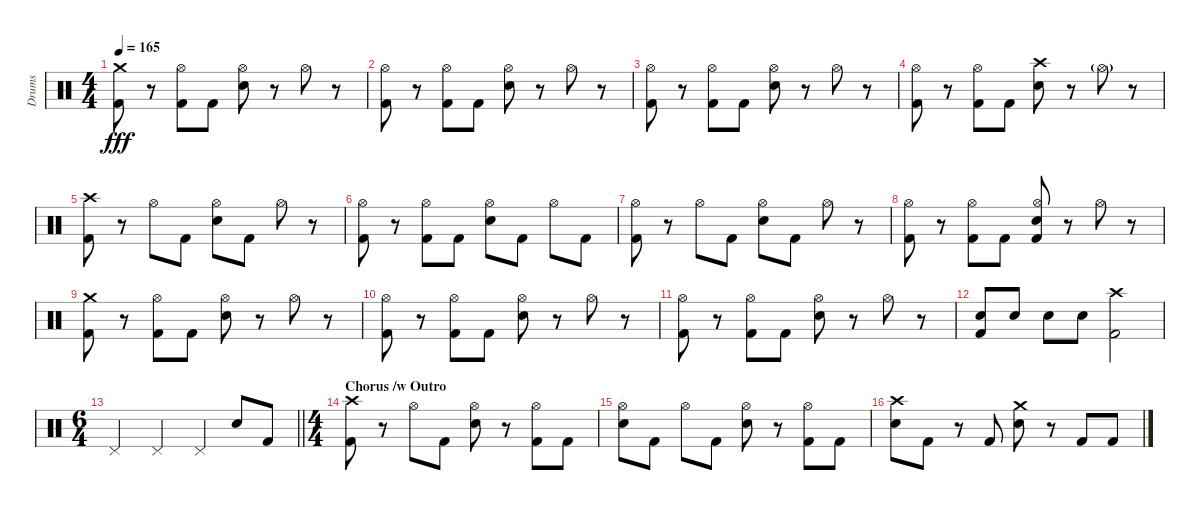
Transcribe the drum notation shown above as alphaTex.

\track ("Drums" "Drums") {instrument percussion}
\staff {score}
\articulation defaults
\ts (4 4)
\tempo 165
\clef neutral
\ks c
("Crash medium (hit)" "Kick (hit) 2").8{dy fff} r.8 ("Hi-Hat (open)" "Kick (hit) 2").8 "Kick (hit) 2".8 ("Hi-Hat (open)" "Electric Snare (hit)").8 r.8 "Hi-Hat (open)".8 r.8 |
("Hi-Hat (open)" "Kick (hit) 2").8 r.8 ("Hi-Hat (open)" "Kick (hit) 2").8 "Kick (hit) 2".8 ("Hi-Hat (open)" "Electric Snare (hit)").8 r.8 "Hi-Hat (open)".8 r.8 |
("Hi-Hat (open)" "Kick (hit) 2").8 r.8 ("Hi-Hat (open)" "Kick (hit) 2").8 "Kick (hit) 2".8 ("Hi-Hat (open)" "Electric Snare (hit)").8 r.8 "Hi-Hat (open)".8 r.8 |
("Hi-Hat (open)" "Kick (hit) 2").8 r.8 ("Hi-Hat (open)" "Kick (hit) 2").8 "Kick (hit) 2".8 ("Crash high (hit)" "Electric Snare (hit)").8 r.8 "Hi-Hat (open)"{g}.8 r.8 |
("Crash high (hit)" "Kick (hit) 2").8 r.8 "Hi-Hat (open)".8 "Kick (hit) 2".8 ("Hi-Hat (open)" "Electric Snare (hit)").8 "Kick (hit) 2".8 "Hi-Hat (open)".8 r.8 |
("Hi-Hat (open)" "Kick (hit) 2").8 r.8 ("Hi-Hat (open)" "Kick (hit) 2").8 "Kick (hit) 2".8 ("Hi-Hat (open)" "Electric Snare (hit)").8 "Kick (hit) 2".8 "Hi-Hat (open)".8 "Kick (hit) 2".8 |
("Hi-Hat (open)" "Kick (hit) 2").8 r.8 "Hi-Hat (open)".8 "Kick (hit) 2".8 ("Hi-Hat (open)" "Electric Snare (hit)").8 "Kick (hit) 2".8 "Hi-Hat (open)".8 r.8 |
("Hi-Hat (open)" "Kick (hit) 2").8 r.8 ("Hi-Hat (open)" "Kick (hit) 2").8 "Kick (hit) 2".8 ("Hi-Hat (open)" "Electric Snare (hit)" "Kick (hit) 2").8 r.8 "Hi-Hat (open)".8 r.8 |
("Crash medium (hit)" "Kick (hit) 2").8 r.8 ("Hi-Hat (open)" "Kick (hit) 2").8 "Kick (hit) 2".8 ("Hi-Hat (open)" "Electric Snare (hit)").8 r.8 "Hi-Hat (open)".8 r.8 |
("Hi-Hat (open)" "Kick (hit) 2").8 r.8 ("Hi-Hat (open)" "Kick (hit) 2").8 "Kick (hit) 2".8 ("Hi-Hat (open)" "Electric Snare (hit)").8 r.8 "Hi-Hat (open)".8 r.8 |
("Hi-Hat (open)" "Kick (hit) 2").8 r.8 ("Hi-Hat (open)" "Kick (hit) 2").8 "Kick (hit) 2".8 ("Hi-Hat (open)" "Electric Snare (hit)").8 r.8 "Hi-Hat (open)".8 r.8 |
("Electric Snare (hit)" "Kick (hit) 2").8 "Electric Snare (hit)".8 "Electric Snare (hit)".8 "Electric Snare (hit)".8 ("Crash high (hit)" "Kick (hit) 2").2 |
\ts (6 4)
\barLineRight lightlight "Pedal Hi-Hat (hit)".2 "Pedal Hi-Hat (hit)".2 "Pedal Hi-Hat (hit)".4 "Electric Snare (hit)".8 "Kick (hit) 2".8
|
\ts (4 4)
\section ("" "Chorus /w Outro")
("Crash high (hit)" "Kick (hit) 2").8 r.8 "Hi-Hat (open)".8 "Kick (hit) 2".8 ("Hi-Hat (open)" "Electric Snare (hit)").8 r.8 ("Hi-Hat (open)" "Kick (hit) 2").8 "Kick (hit) 2".8 |
("Hi-Hat (open)" "Electric Snare (hit)").8 "Kick (hit) 2".8 "Hi-Hat (open)".8 "Kick (hit) 2".8 ("Hi-Hat (open)" "Electric Snare (hit)").8 r.8 ("Hi-Hat (open)" "Kick (hit) 2").8 "Kick (hit) 2".8 |
("Crash high (hit)" "Electric Snare (hit)").8 "Kick (hit) 2".8 r.8 "Kick (hit) 2".8 ("Crash medium (hit)" "Electric Snare (hit)").8 r.8 "Kick (hit) 2".8 "Kick (hit) 2".8
